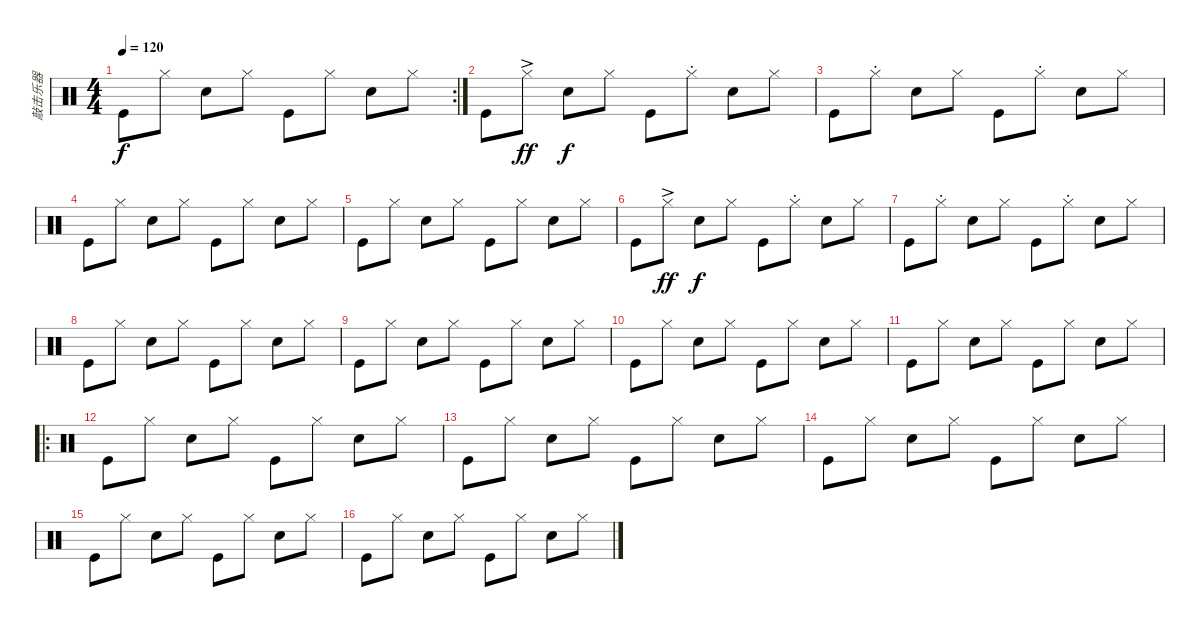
\track ("敲击乐器" "敲击乐器") {instrument percussion}
\staff {score}
\articulation defaults
\rc 2
\ts (4 4)
\tempo 120
\clef neutral
\ks c "Kick (hit)".8{dy f} "Hi-Hat (closed)".8 "Snare (hit) 2".8 "Hi-Hat (closed)".8 "Kick (hit)".8 "Hi-Hat (closed)".8 "Snare (hit) 2".8 "Hi-Hat (closed)".8
|
"Kick (hit)".8 "Hi-Hat (closed)"{ac}.8{dy ff} "Snare (hit) 2".8{dy f} "Hi-Hat (closed)".8 "Kick (hit)".8 "Hi-Hat (closed)"{st}.8 "Snare (hit) 2".8 "Hi-Hat (closed)".8 |
"Kick (hit)".8 "Hi-Hat (closed)"{st}.8 "Snare (hit) 2".8 "Hi-Hat (closed)".8 "Kick (hit)".8 "Hi-Hat (closed)"{st}.8 "Snare (hit) 2".8 "Hi-Hat (closed)".8 |
"Kick (hit)".8 "Hi-Hat (closed)".8 "Snare (hit) 2".8 "Hi-Hat (closed)".8 "Kick (hit)".8 "Hi-Hat (closed)".8 "Snare (hit) 2".8 "Hi-Hat (closed)".8 |
"Kick (hit)".8 "Hi-Hat (closed)".8 "Snare (hit) 2".8 "Hi-Hat (closed)".8 "Kick (hit)".8 "Hi-Hat (closed)".8 "Snare (hit) 2".8 "Hi-Hat (closed)".8 |
"Kick (hit)".8 "Hi-Hat (closed)"{ac}.8{dy ff} "Snare (hit) 2".8{dy f} "Hi-Hat (closed)".8 "Kick (hit)".8 "Hi-Hat (closed)"{st}.8 "Snare (hit) 2".8 "Hi-Hat (closed)".8 |
"Kick (hit)".8 "Hi-Hat (closed)"{st}.8 "Snare (hit) 2".8 "Hi-Hat (closed)".8 "Kick (hit)".8 "Hi-Hat (closed)"{st}.8 "Snare (hit) 2".8 "Hi-Hat (closed)".8 |
"Kick (hit)".8 "Hi-Hat (closed)".8 "Snare (hit) 2".8 "Hi-Hat (closed)".8 "Kick (hit)".8 "Hi-Hat (closed)".8 "Snare (hit) 2".8 "Hi-Hat (closed)".8 |
"Kick (hit)".8 "Hi-Hat (closed)".8 "Snare (hit) 2".8 "Hi-Hat (closed)".8 "Kick (hit)".8 "Hi-Hat (closed)".8 "Snare (hit) 2".8 "Hi-Hat (closed)".8 |
"Kick (hit)".8 "Hi-Hat (closed)".8 "Snare (hit) 2".8 "Hi-Hat (closed)".8 "Kick (hit)".8 "Hi-Hat (closed)".8 "Snare (hit) 2".8 "Hi-Hat (closed)".8 |
"Kick (hit)".8 "Hi-Hat (closed)".8 "Snare (hit) 2".8 "Hi-Hat (closed)".8 "Kick (hit)".8 "Hi-Hat (closed)".8 "Snare (hit) 2".8 "Hi-Hat (closed)".8 |
\ro "Kick (hit)".8 "Hi-Hat (closed)".8 "Snare (hit) 2".8 "Hi-Hat (closed)".8 "Kick (hit)".8 "Hi-Hat (closed)".8 "Snare (hit) 2".8 "Hi-Hat (closed)".8
|
"Kick (hit)".8 "Hi-Hat (closed)".8 "Snare (hit) 2".8 "Hi-Hat (closed)".8 "Kick (hit)".8 "Hi-Hat (closed)".8 "Snare (hit) 2".8 "Hi-Hat (closed)".8 |
"Kick (hit)".8 "Hi-Hat (closed)".8 "Snare (hit) 2".8 "Hi-Hat (closed)".8 "Kick (hit)".8 "Hi-Hat (closed)".8 "Snare (hit) 2".8 "Hi-Hat (closed)".8 |
"Kick (hit)".8 "Hi-Hat (closed)".8 "Snare (hit) 2".8 "Hi-Hat (closed)".8 "Kick (hit)".8 "Hi-Hat (closed)".8 "Snare (hit) 2".8 "Hi-Hat (closed)".8 |
"Kick (hit)".8 "Hi-Hat (closed)".8 "Snare (hit) 2".8 "Hi-Hat (closed)".8 "Kick (hit)".8 "Hi-Hat (closed)".8 "Snare (hit) 2".8 "Hi-Hat (closed)".8
